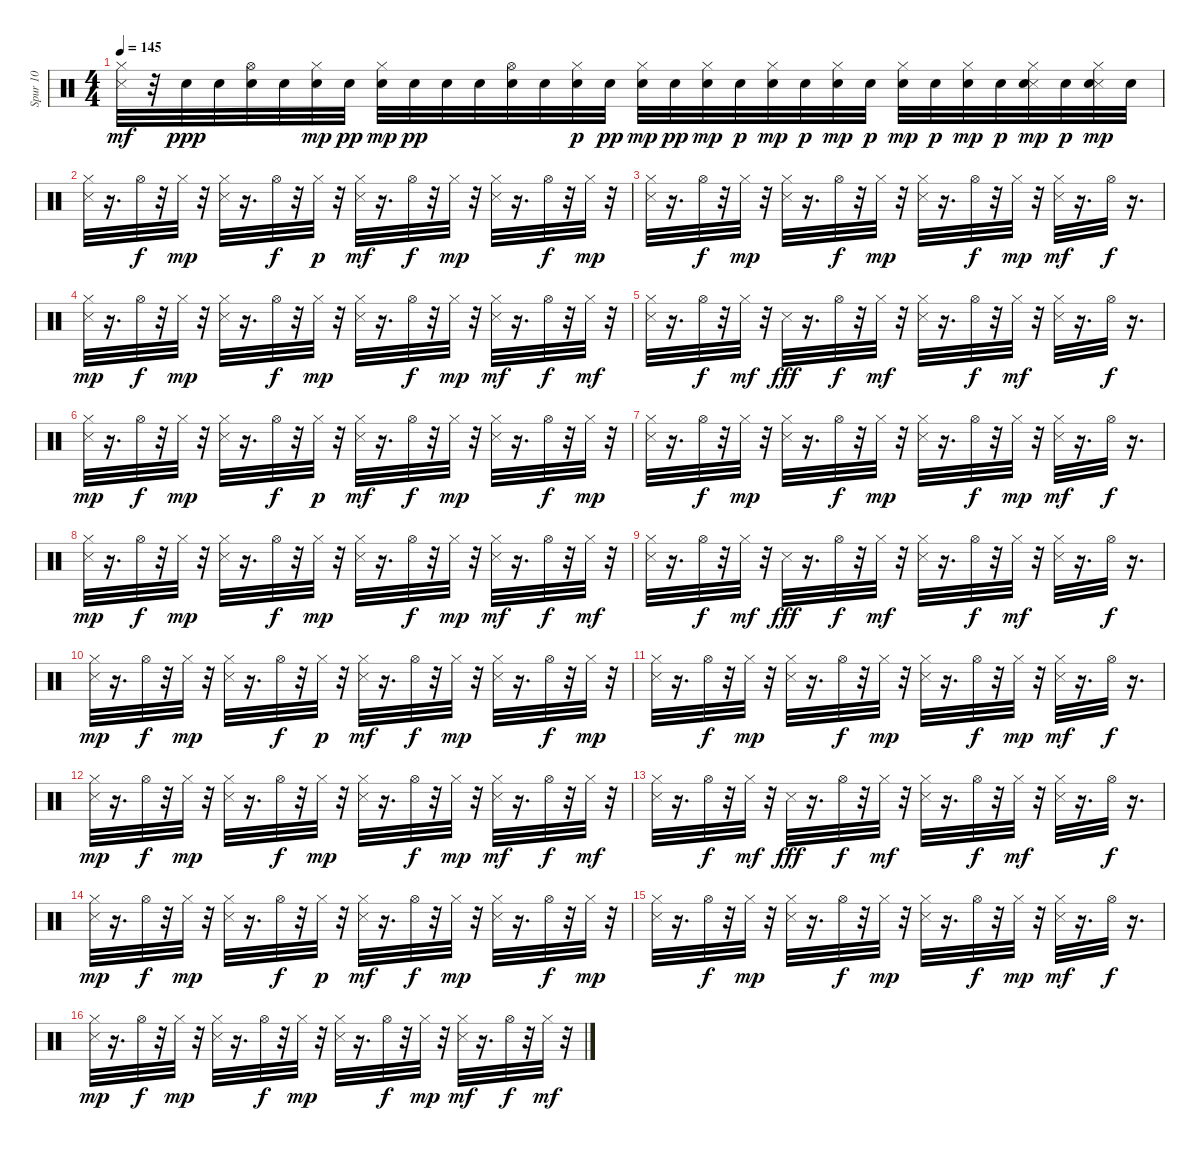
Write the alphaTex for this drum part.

\track ("Spur 10" "Spur 10") {instrument percussion}
\staff {score}
\articulation defaults
\ts (4 4)
\tempo 145
\clef neutral
\ks c
("Metronome (hit)" "Hi-Hat (closed)").32{dy mf} r.32 "Snare (hit) 2".32{dy ppp} "Snare (hit) 2".32 ("Snare (hit) 2" "Hi-Hat (open)").32 "Snare (hit) 2".32 ("Snare (hit) 2" "Hi-Hat (closed)").32{dy mp} "Snare (hit) 2".32{dy pp} ("Snare (hit) 2" "Hi-Hat (closed)").32{dy mp} "Snare (hit) 2".32{dy pp} "Snare (hit) 2".32 "Snare (hit) 2".32 ("Snare (hit) 2" "Hi-Hat (open)").32 "Snare (hit) 2".32 ("Snare (hit) 2" "Hi-Hat (closed)").32{dy p} "Snare (hit) 2".32{dy pp} ("Snare (hit) 2" "Hi-Hat (closed)").32{dy mp} "Snare (hit) 2".32{dy pp} ("Snare (hit) 2" "Hi-Hat (closed)").32{dy mp} "Snare (hit) 2".32{dy p} ("Snare (hit) 2" "Hi-Hat (closed)").32{dy mp} "Snare (hit) 2".32{dy p} ("Snare (hit) 2" "Hi-Hat (closed)").32{dy mp} "Snare (hit) 2".32{dy p} ("Snare (hit) 2" "Hi-Hat (closed)").32{dy mp} "Snare (hit) 2".32{dy p} ("Snare (hit) 2" "Hi-Hat (closed)").32{dy mp} "Snare (hit) 2".32{dy p} ("Metronome (hit)" "Snare (hit) 2" "Hi-Hat (closed)").32{dy mp} "Snare (hit) 2".32{dy p} ("Metronome (hit)" "Snare (hit) 2" "Hi-Hat (closed)").32{dy mp} "Snare (hit) 2".32 |
("Metronome (hit)" "Hi-Hat (closed)").32 r.16{d} "Hi-Hat (open)".32{dy f} r.32 "Hi-Hat (closed)".32{dy mp} r.32 ("Metronome (hit)" "Hi-Hat (closed)").32 r.16{d} "Hi-Hat (open)".32{dy f} r.32 "Hi-Hat (closed)".32{dy p} r.32 ("Metronome (hit)" "Hi-Hat (closed)").32{dy mf} r.16{d} "Hi-Hat (open)".32{dy f} r.32 "Hi-Hat (closed)".32{dy mp} r.32 ("Metronome (hit)" "Hi-Hat (closed)").32 r.16{d} "Hi-Hat (open)".32{dy f} r.32 "Hi-Hat (closed)".32{dy mp} r.32 |
("Metronome (hit)" "Hi-Hat (closed)").32 r.16{d} "Hi-Hat (open)".32{dy f} r.32 "Hi-Hat (closed)".32{dy mp} r.32 ("Metronome (hit)" "Hi-Hat (closed)").32 r.16{d} "Hi-Hat (open)".32{dy f} r.32 "Hi-Hat (closed)".32{dy mp} r.32 ("Metronome (hit)" "Hi-Hat (closed)").32 r.16{d} "Hi-Hat (open)".32{dy f} r.32 "Hi-Hat (closed)".32{dy mp} r.32 ("Metronome (hit)" "Hi-Hat (closed)").32{dy mf} r.16{d} "Hi-Hat (open)".32{dy f} r.16{d} |
("Metronome (hit)" "Hi-Hat (closed)").32{dy mp} r.16{d} "Hi-Hat (open)".32{dy f} r.32 "Hi-Hat (closed)".32{dy mp} r.32 ("Metronome (hit)" "Hi-Hat (closed)").32 r.16{d} "Hi-Hat (open)".32{dy f} r.32 "Hi-Hat (closed)".32{dy mp} r.32 ("Metronome (hit)" "Hi-Hat (closed)").32 r.16{d} "Hi-Hat (open)".32{dy f} r.32 "Hi-Hat (closed)".32{dy mp} r.32 ("Metronome (hit)" "Hi-Hat (closed)").32{dy mf} r.16{d} "Hi-Hat (open)".32{dy f} r.32 "Hi-Hat (closed)".32{dy mf} r.32 |
("Metronome (hit)" "Hi-Hat (closed)").32 r.16{d} "Hi-Hat (open)".32{dy f} r.32 "Hi-Hat (closed)".32{dy mf} r.32 "Metronome (hit)".32{dy fff} r.16{d} "Hi-Hat (open)".32{dy f} r.32 "Hi-Hat (closed)".32{dy mf} r.32 ("Metronome (hit)" "Hi-Hat (closed)").32 r.16{d} "Hi-Hat (open)".32{dy f} r.32 "Hi-Hat (closed)".32{dy mf} r.32 ("Metronome (hit)" "Hi-Hat (closed)").32 r.16{d} "Hi-Hat (open)".32{dy f} r.16{d} |
("Metronome (hit)" "Hi-Hat (closed)").32{dy mp} r.16{d} "Hi-Hat (open)".32{dy f} r.32 "Hi-Hat (closed)".32{dy mp} r.32 ("Metronome (hit)" "Hi-Hat (closed)").32 r.16{d} "Hi-Hat (open)".32{dy f} r.32 "Hi-Hat (closed)".32{dy p} r.32 ("Metronome (hit)" "Hi-Hat (closed)").32{dy mf} r.16{d} "Hi-Hat (open)".32{dy f} r.32 "Hi-Hat (closed)".32{dy mp} r.32 ("Metronome (hit)" "Hi-Hat (closed)").32 r.16{d} "Hi-Hat (open)".32{dy f} r.32 "Hi-Hat (closed)".32{dy mp} r.32 |
("Metronome (hit)" "Hi-Hat (closed)").32 r.16{d} "Hi-Hat (open)".32{dy f} r.32 "Hi-Hat (closed)".32{dy mp} r.32 ("Metronome (hit)" "Hi-Hat (closed)").32 r.16{d} "Hi-Hat (open)".32{dy f} r.32 "Hi-Hat (closed)".32{dy mp} r.32 ("Metronome (hit)" "Hi-Hat (closed)").32 r.16{d} "Hi-Hat (open)".32{dy f} r.32 "Hi-Hat (closed)".32{dy mp} r.32 ("Metronome (hit)" "Hi-Hat (closed)").32{dy mf} r.16{d} "Hi-Hat (open)".32{dy f} r.16{d} |
("Metronome (hit)" "Hi-Hat (closed)").32{dy mp} r.16{d} "Hi-Hat (open)".32{dy f} r.32 "Hi-Hat (closed)".32{dy mp} r.32 ("Metronome (hit)" "Hi-Hat (closed)").32 r.16{d} "Hi-Hat (open)".32{dy f} r.32 "Hi-Hat (closed)".32{dy mp} r.32 ("Metronome (hit)" "Hi-Hat (closed)").32 r.16{d} "Hi-Hat (open)".32{dy f} r.32 "Hi-Hat (closed)".32{dy mp} r.32 ("Metronome (hit)" "Hi-Hat (closed)").32{dy mf} r.16{d} "Hi-Hat (open)".32{dy f} r.32 "Hi-Hat (closed)".32{dy mf} r.32 |
("Metronome (hit)" "Hi-Hat (closed)").32 r.16{d} "Hi-Hat (open)".32{dy f} r.32 "Hi-Hat (closed)".32{dy mf} r.32 "Metronome (hit)".32{dy fff} r.16{d} "Hi-Hat (open)".32{dy f} r.32 "Hi-Hat (closed)".32{dy mf} r.32 ("Metronome (hit)" "Hi-Hat (closed)").32 r.16{d} "Hi-Hat (open)".32{dy f} r.32 "Hi-Hat (closed)".32{dy mf} r.32 ("Metronome (hit)" "Hi-Hat (closed)").32 r.16{d} "Hi-Hat (open)".32{dy f} r.16{d} |
("Metronome (hit)" "Hi-Hat (closed)").32{dy mp} r.16{d} "Hi-Hat (open)".32{dy f} r.32 "Hi-Hat (closed)".32{dy mp} r.32 ("Metronome (hit)" "Hi-Hat (closed)").32 r.16{d} "Hi-Hat (open)".32{dy f} r.32 "Hi-Hat (closed)".32{dy p} r.32 ("Metronome (hit)" "Hi-Hat (closed)").32{dy mf} r.16{d} "Hi-Hat (open)".32{dy f} r.32 "Hi-Hat (closed)".32{dy mp} r.32 ("Metronome (hit)" "Hi-Hat (closed)").32 r.16{d} "Hi-Hat (open)".32{dy f} r.32 "Hi-Hat (closed)".32{dy mp} r.32 |
("Metronome (hit)" "Hi-Hat (closed)").32 r.16{d} "Hi-Hat (open)".32{dy f} r.32 "Hi-Hat (closed)".32{dy mp} r.32 ("Metronome (hit)" "Hi-Hat (closed)").32 r.16{d} "Hi-Hat (open)".32{dy f} r.32 "Hi-Hat (closed)".32{dy mp} r.32 ("Metronome (hit)" "Hi-Hat (closed)").32 r.16{d} "Hi-Hat (open)".32{dy f} r.32 "Hi-Hat (closed)".32{dy mp} r.32 ("Metronome (hit)" "Hi-Hat (closed)").32{dy mf} r.16{d} "Hi-Hat (open)".32{dy f} r.16{d} |
("Metronome (hit)" "Hi-Hat (closed)").32{dy mp} r.16{d} "Hi-Hat (open)".32{dy f} r.32 "Hi-Hat (closed)".32{dy mp} r.32 ("Metronome (hit)" "Hi-Hat (closed)").32 r.16{d} "Hi-Hat (open)".32{dy f} r.32 "Hi-Hat (closed)".32{dy mp} r.32 ("Metronome (hit)" "Hi-Hat (closed)").32 r.16{d} "Hi-Hat (open)".32{dy f} r.32 "Hi-Hat (closed)".32{dy mp} r.32 ("Metronome (hit)" "Hi-Hat (closed)").32{dy mf} r.16{d} "Hi-Hat (open)".32{dy f} r.32 "Hi-Hat (closed)".32{dy mf} r.32 |
("Metronome (hit)" "Hi-Hat (closed)").32 r.16{d} "Hi-Hat (open)".32{dy f} r.32 "Hi-Hat (closed)".32{dy mf} r.32 "Metronome (hit)".32{dy fff} r.16{d} "Hi-Hat (open)".32{dy f} r.32 "Hi-Hat (closed)".32{dy mf} r.32 ("Metronome (hit)" "Hi-Hat (closed)").32 r.16{d} "Hi-Hat (open)".32{dy f} r.32 "Hi-Hat (closed)".32{dy mf} r.32 ("Metronome (hit)" "Hi-Hat (closed)").32 r.16{d} "Hi-Hat (open)".32{dy f} r.16{d} |
("Metronome (hit)" "Hi-Hat (closed)").32{dy mp} r.16{d} "Hi-Hat (open)".32{dy f} r.32 "Hi-Hat (closed)".32{dy mp} r.32 ("Metronome (hit)" "Hi-Hat (closed)").32 r.16{d} "Hi-Hat (open)".32{dy f} r.32 "Hi-Hat (closed)".32{dy p} r.32 ("Metronome (hit)" "Hi-Hat (closed)").32{dy mf} r.16{d} "Hi-Hat (open)".32{dy f} r.32 "Hi-Hat (closed)".32{dy mp} r.32 ("Metronome (hit)" "Hi-Hat (closed)").32 r.16{d} "Hi-Hat (open)".32{dy f} r.32 "Hi-Hat (closed)".32{dy mp} r.32 |
("Metronome (hit)" "Hi-Hat (closed)").32 r.16{d} "Hi-Hat (open)".32{dy f} r.32 "Hi-Hat (closed)".32{dy mp} r.32 ("Metronome (hit)" "Hi-Hat (closed)").32 r.16{d} "Hi-Hat (open)".32{dy f} r.32 "Hi-Hat (closed)".32{dy mp} r.32 ("Metronome (hit)" "Hi-Hat (closed)").32 r.16{d} "Hi-Hat (open)".32{dy f} r.32 "Hi-Hat (closed)".32{dy mp} r.32 ("Metronome (hit)" "Hi-Hat (closed)").32{dy mf} r.16{d} "Hi-Hat (open)".32{dy f} r.16{d} |
("Metronome (hit)" "Hi-Hat (closed)").32{dy mp} r.16{d} "Hi-Hat (open)".32{dy f} r.32 "Hi-Hat (closed)".32{dy mp} r.32 ("Metronome (hit)" "Hi-Hat (closed)").32 r.16{d} "Hi-Hat (open)".32{dy f} r.32 "Hi-Hat (closed)".32{dy mp} r.32 ("Metronome (hit)" "Hi-Hat (closed)").32 r.16{d} "Hi-Hat (open)".32{dy f} r.32 "Hi-Hat (closed)".32{dy mp} r.32 ("Metronome (hit)" "Hi-Hat (closed)").32{dy mf} r.16{d} "Hi-Hat (open)".32{dy f} r.32 "Hi-Hat (closed)".32{dy mf} r.32
